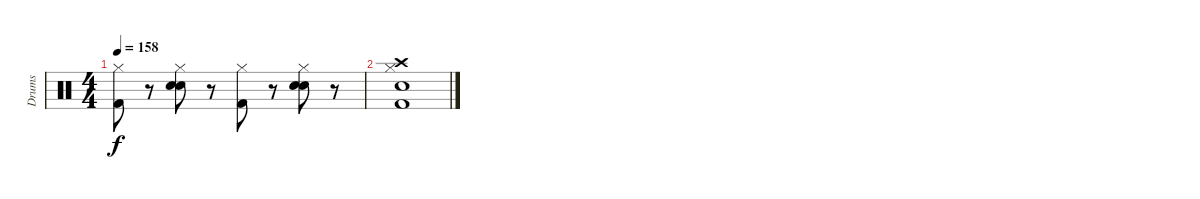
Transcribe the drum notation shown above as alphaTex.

\track ("Drums" "Drums") {instrument percussion}
\staff {score}
\articulation defaults
\ts (4 4)
\tempo 158
\clef neutral
\ks c
("Hi-Hat (closed)" "Kick (hit) 2").8{dy f} r.8 ("Hi-Hat (closed)" "Electric Snare (hit)" "Snare (hit) 2").8 r.8 ("Hi-Hat (closed)" "Kick (hit) 2").8 r.8 ("Hi-Hat (closed)" "Electric Snare (hit)" "Snare (hit) 2").8 r.8 |
("Hi-Hat (closed)" "Crash high (hit)" "Snare (hit) 2" "Kick (hit) 2").1
